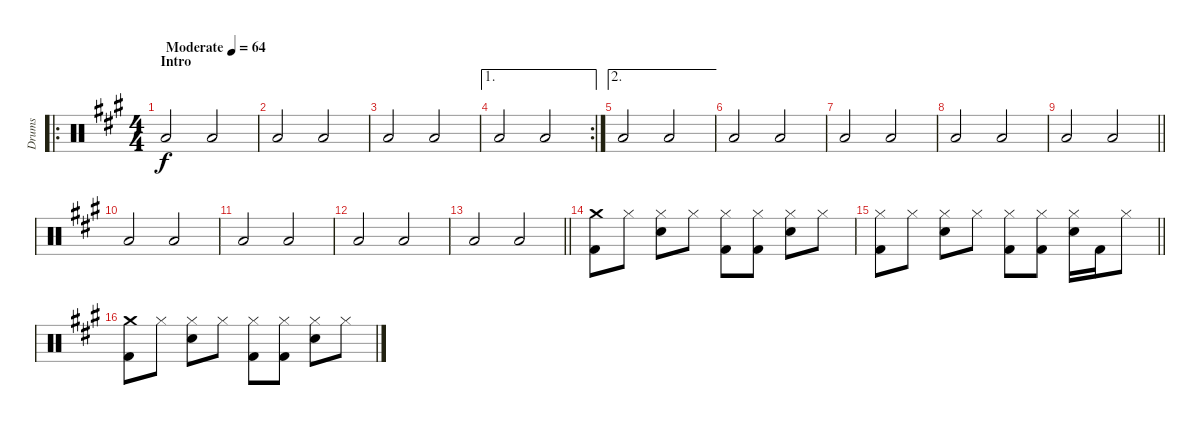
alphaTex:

\track ("Drums" "Drums") {instrument percussion}
\staff {score}
\articulation defaults
\ro
\ts (4 4)
\section ("" "Intro")
\tempo (64 "Moderate")
\clef neutral
\ks a "Low Floor Tom (hit)".2{dy f volume 2} "Low Floor Tom (hit)".2
|
"Low Floor Tom (hit)".2 "Low Floor Tom (hit)".2 |
"Low Floor Tom (hit)".2 "Low Floor Tom (hit)".2 |
\ae 1
\rc 2 "Low Floor Tom (hit)".2 "Low Floor Tom (hit)".2
|
\ae 2 "Low Floor Tom (hit)".2 "Low Floor Tom (hit)".2
|
"Low Floor Tom (hit)".2 "Low Floor Tom (hit)".2 |
"Low Floor Tom (hit)".2 "Low Floor Tom (hit)".2 |
"Low Floor Tom (hit)".2 "Low Floor Tom (hit)".2 |
\barLineRight lightlight "Low Floor Tom (hit)".2 "Low Floor Tom (hit)".2
|
"Low Floor Tom (hit)".2 "Low Floor Tom (hit)".2 |
"Low Floor Tom (hit)".2 "Low Floor Tom (hit)".2 |
"Low Floor Tom (hit)".2 "Low Floor Tom (hit)".2 |
\barLineRight lightlight "Low Floor Tom (hit)".2 "Low Floor Tom (hit)".2
|
("Crash medium (hit)" "Kick (hit) 2").8{volume 14} "Hi-Hat (closed)".8 ("Hi-Hat (closed)" "Electric Snare (hit)").8 "Hi-Hat (closed)".8 ("Hi-Hat (closed)" "Kick (hit) 2").8 ("Hi-Hat (closed)" "Kick (hit) 2").8 ("Hi-Hat (closed)" "Electric Snare (hit)").8 "Hi-Hat (closed)".8 |
\barLineRight lightlight
("Hi-Hat (closed)" "Kick (hit) 2").8 "Hi-Hat (closed)".8 ("Hi-Hat (closed)" "Electric Snare (hit)").8 "Hi-Hat (closed)".8 ("Hi-Hat (closed)" "Kick (hit) 2").8 ("Hi-Hat (closed)" "Kick (hit) 2").8 ("Hi-Hat (closed)" "Electric Snare (hit)").16 "Kick (hit) 2".16 "Hi-Hat (closed)".8 |
("Crash medium (hit)" "Kick (hit) 2").8{volume 14} "Hi-Hat (closed)".8 ("Hi-Hat (closed)" "Electric Snare (hit)").8 "Hi-Hat (closed)".8 ("Hi-Hat (closed)" "Kick (hit) 2").8 ("Hi-Hat (closed)" "Kick (hit) 2").8 ("Hi-Hat (closed)" "Electric Snare (hit)").8 "Hi-Hat (closed)".8
